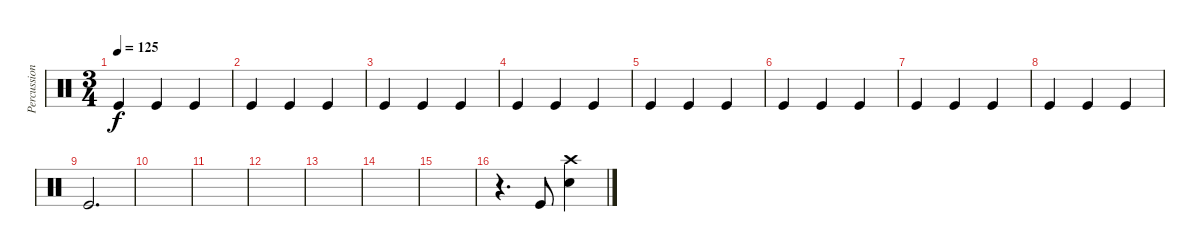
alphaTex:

\track ("Percussion" "Percussion") {instrument percussion}
\staff {score}
\articulation defaults
\ts (3 4)
\tempo 125
\clef neutral
\ks c "Kick (hit)".4{dy f} "Kick (hit)".4 "Kick (hit)".4
|
"Kick (hit)".4 "Kick (hit)".4 "Kick (hit)".4 |
"Kick (hit)".4 "Kick (hit)".4 "Kick (hit)".4 |
"Kick (hit)".4 "Kick (hit)".4 "Kick (hit)".4 |
"Kick (hit)".4 "Kick (hit)".4 "Kick (hit)".4 |
"Kick (hit)".4 "Kick (hit)".4 "Kick (hit)".4 |
"Kick (hit)".4 "Kick (hit)".4 "Kick (hit)".4 |
"Kick (hit)".4 "Kick (hit)".4 "Kick (hit)".4 |
"Kick (hit)".2{d} |
|
|
|
|
|
|
r.4{d} "Kick (hit)".8 ("Crash high (hit)" "Electric Snare (hit)").4
